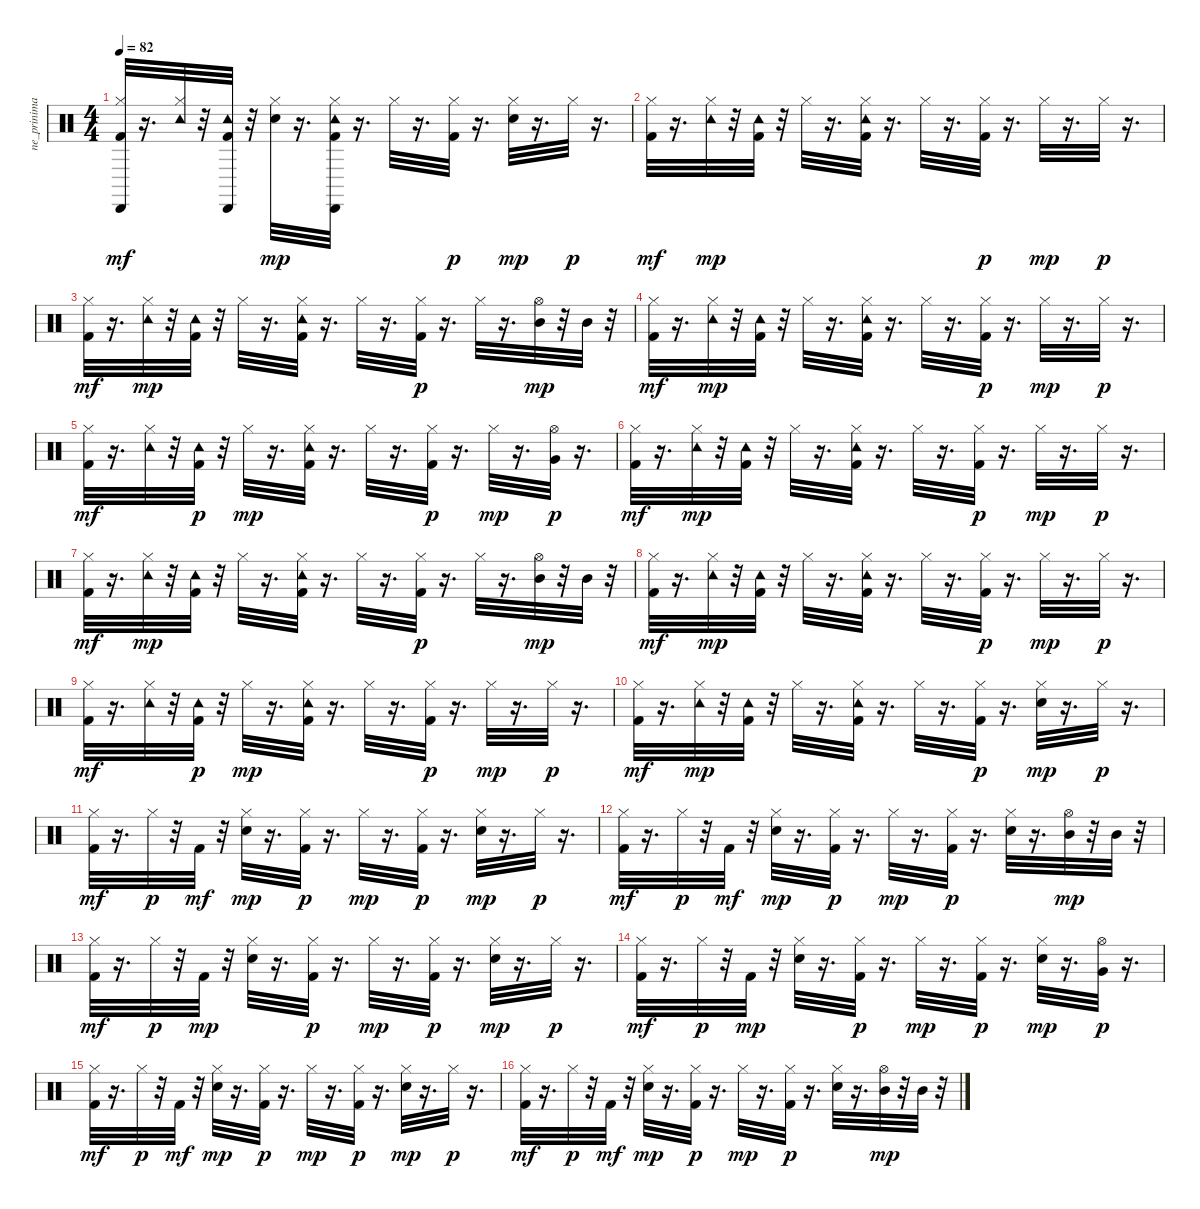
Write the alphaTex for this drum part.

\track ("ne_prinimai" "ne_prinima") {instrument percussion}
\staff {score}
\articulation defaults
\ts (4 4)
\tempo 82
\clef neutral
\ks c
("Kick (hit) 2" "Hi-Hat (closed)" "Cabasa (hit)").32{dy mf} r.16{d} ("Hi-Hat (closed)" "Tambourine (hit)").32 r.32 ("Kick (hit) 2" "Tambourine (hit)" "Cabasa (hit)").32 r.32 ("Electric Snare (hit)" "Hi-Hat (closed)").32{dy mp} r.16{d} ("Kick (hit) 2" "Hi-Hat (closed)" "Tambourine (hit)" "Cabasa (hit)").32 r.16{d} "Hi-Hat (closed)".32 r.16{d} ("Kick (hit) 2" "Hi-Hat (closed)").32{dy p} r.16{d} ("Snare (hit) 2" "Hi-Hat (closed)").32{dy mp} r.16{d} "Hi-Hat (closed)".32{dy p} r.16{d} |
("Kick (hit) 2" "Hi-Hat (closed)").32{dy mf} r.16{d} ("Hi-Hat (closed)" "Tambourine (hit)").32{dy mp} r.32 ("Kick (hit) 2" "Tambourine (hit)").32 r.32 "Hi-Hat (closed)".32 r.16{d} ("Kick (hit) 2" "Hi-Hat (closed)" "Tambourine (hit)").32 r.16{d} "Hi-Hat (closed)".32 r.16{d} ("Kick (hit) 2" "Hi-Hat (closed)").32{dy p} r.16{d} "Hi-Hat (closed)".32{dy mp} r.16{d} "Hi-Hat (closed)".32{dy p} r.16{d} |
("Kick (hit) 2" "Hi-Hat (closed)").32{dy mf} r.16{d} ("Hi-Hat (closed)" "Tambourine (hit)").32{dy mp} r.32 ("Kick (hit) 2" "Tambourine (hit)").32 r.32 "Hi-Hat (closed)".32 r.16{d} ("Kick (hit) 2" "Hi-Hat (closed)" "Tambourine (hit)").32 r.16{d} "Hi-Hat (closed)".32 r.16{d} ("Kick (hit) 2" "Hi-Hat (closed)").32{dy p} r.16{d} "Hi-Hat (closed)".32 r.16{d} ("Hi-Hat (open)" "Mid Tom (hit)").32{dy mp} r.32 "Mid Tom (hit)".32 r.32 |
("Kick (hit) 2" "Hi-Hat (closed)").32{dy mf} r.16{d} ("Hi-Hat (closed)" "Tambourine (hit)").32{dy mp} r.32 ("Kick (hit) 2" "Tambourine (hit)").32 r.32 "Hi-Hat (closed)".32 r.16{d} ("Kick (hit) 2" "Hi-Hat (closed)" "Tambourine (hit)").32 r.16{d} "Hi-Hat (closed)".32 r.16{d} ("Kick (hit) 2" "Hi-Hat (closed)").32{dy p} r.16{d} "Hi-Hat (closed)".32{dy mp} r.16{d} "Hi-Hat (closed)".32{dy p} r.16{d} |
("Kick (hit) 2" "Hi-Hat (closed)").32{dy mf} r.16{d} ("Hi-Hat (closed)" "Tambourine (hit)").32 r.32 ("Kick (hit) 2" "Tambourine (hit)").32{dy p} r.32 "Hi-Hat (closed)".32{dy mp} r.16{d} ("Kick (hit) 2" "Hi-Hat (closed)" "Tambourine (hit)").32 r.16{d} "Hi-Hat (closed)".32 r.16{d} ("Kick (hit) 2" "Hi-Hat (closed)").32{dy p} r.16{d} "Hi-Hat (closed)".32{dy mp} r.16{d} ("Very Low Tom (hit)" "Hi-Hat (open)").32{dy p} r.16{d} |
("Kick (hit) 2" "Hi-Hat (closed)").32{dy mf} r.16{d} ("Hi-Hat (closed)" "Tambourine (hit)").32{dy mp} r.32 ("Kick (hit) 2" "Tambourine (hit)").32 r.32 "Hi-Hat (closed)".32 r.16{d} ("Kick (hit) 2" "Hi-Hat (closed)" "Tambourine (hit)").32 r.16{d} "Hi-Hat (closed)".32 r.16{d} ("Kick (hit) 2" "Hi-Hat (closed)").32{dy p} r.16{d} "Hi-Hat (closed)".32{dy mp} r.16{d} "Hi-Hat (closed)".32{dy p} r.16{d} |
("Kick (hit) 2" "Hi-Hat (closed)").32{dy mf} r.16{d} ("Hi-Hat (closed)" "Tambourine (hit)").32{dy mp} r.32 ("Kick (hit) 2" "Tambourine (hit)").32 r.32 "Hi-Hat (closed)".32 r.16{d} ("Kick (hit) 2" "Hi-Hat (closed)" "Tambourine (hit)").32 r.16{d} "Hi-Hat (closed)".32 r.16{d} ("Kick (hit) 2" "Hi-Hat (closed)").32{dy p} r.16{d} "Hi-Hat (closed)".32 r.16{d} ("Hi-Hat (open)" "Mid Tom (hit)").32{dy mp} r.32 "Mid Tom (hit)".32 r.32 |
("Kick (hit) 2" "Hi-Hat (closed)").32{dy mf} r.16{d} ("Hi-Hat (closed)" "Tambourine (hit)").32{dy mp} r.32 ("Kick (hit) 2" "Tambourine (hit)").32 r.32 "Hi-Hat (closed)".32 r.16{d} ("Kick (hit) 2" "Hi-Hat (closed)" "Tambourine (hit)").32 r.16{d} "Hi-Hat (closed)".32 r.16{d} ("Kick (hit) 2" "Hi-Hat (closed)").32{dy p} r.16{d} "Hi-Hat (closed)".32{dy mp} r.16{d} "Hi-Hat (closed)".32{dy p} r.16{d} |
("Kick (hit) 2" "Hi-Hat (closed)").32{dy mf} r.16{d} ("Hi-Hat (closed)" "Tambourine (hit)").32 r.32 ("Kick (hit) 2" "Tambourine (hit)").32{dy p} r.32 "Hi-Hat (closed)".32{dy mp} r.16{d} ("Kick (hit) 2" "Hi-Hat (closed)" "Tambourine (hit)").32 r.16{d} "Hi-Hat (closed)".32 r.16{d} ("Kick (hit) 2" "Hi-Hat (closed)").32{dy p} r.16{d} "Hi-Hat (closed)".32{dy mp} r.16{d} "Hi-Hat (closed)".32{dy p} r.16{d} |
("Kick (hit) 2" "Hi-Hat (closed)").32{dy mf} r.16{d} ("Hi-Hat (closed)" "Tambourine (hit)").32{dy mp} r.32 ("Kick (hit) 2" "Tambourine (hit)").32 r.32 "Hi-Hat (closed)".32 r.16{d} ("Kick (hit) 2" "Hi-Hat (closed)" "Tambourine (hit)").32 r.16{d} "Hi-Hat (closed)".32 r.16{d} ("Kick (hit) 2" "Hi-Hat (closed)").32{dy p} r.16{d} ("Snare (hit) 2" "Hi-Hat (closed)").32{dy mp} r.16{d} "Hi-Hat (closed)".32{dy p} r.16{d} |
("Kick (hit) 2" "Hi-Hat (closed)").32{dy mf} r.16{d} "Hi-Hat (closed)".32{dy p} r.32 "Kick (hit) 2".32{dy mf} r.32 ("Snare (hit) 2" "Hi-Hat (closed)").32{dy mp} r.16{d} ("Kick (hit) 2" "Hi-Hat (closed)").32{dy p} r.16{d} "Hi-Hat (closed)".32{dy mp} r.16{d} ("Kick (hit) 2" "Hi-Hat (closed)").32{dy p} r.16{d} ("Snare (hit) 2" "Hi-Hat (closed)").32{dy mp} r.16{d} "Hi-Hat (closed)".32{dy p} r.16{d} |
("Kick (hit) 2" "Hi-Hat (closed)").32{dy mf} r.16{d} "Hi-Hat (closed)".32{dy p} r.32 "Kick (hit) 2".32{dy mf} r.32 ("Snare (hit) 2" "Hi-Hat (closed)").32{dy mp} r.16{d} ("Kick (hit) 2" "Hi-Hat (closed)").32{dy p} r.16{d} "Hi-Hat (closed)".32{dy mp} r.16{d} ("Kick (hit) 2" "Hi-Hat (closed)").32{dy p} r.16{d} ("Snare (hit) 2" "Hi-Hat (closed)").32 r.16{d} ("Hi-Hat (open)" "Mid Tom (hit)").32{dy mp} r.32 "Mid Tom (hit)".32 r.32 |
("Kick (hit) 2" "Hi-Hat (closed)").32{dy mf} r.16{d} "Hi-Hat (closed)".32{dy p} r.32 "Kick (hit) 2".32{dy mp} r.32 ("Snare (hit) 2" "Hi-Hat (closed)").32 r.16{d} ("Kick (hit) 2" "Hi-Hat (closed)").32{dy p} r.16{d} "Hi-Hat (closed)".32{dy mp} r.16{d} ("Kick (hit) 2" "Hi-Hat (closed)").32{dy p} r.16{d} ("Snare (hit) 2" "Hi-Hat (closed)").32{dy mp} r.16{d} "Hi-Hat (closed)".32{dy p} r.16{d} |
("Kick (hit) 2" "Hi-Hat (closed)").32{dy mf} r.16{d} "Hi-Hat (closed)".32{dy p} r.32 "Kick (hit) 2".32{dy mp} r.32 ("Snare (hit) 2" "Hi-Hat (closed)").32 r.16{d} ("Kick (hit) 2" "Hi-Hat (closed)").32{dy p} r.16{d} "Hi-Hat (closed)".32{dy mp} r.16{d} ("Kick (hit) 2" "Hi-Hat (closed)").32{dy p} r.16{d} ("Snare (hit) 2" "Hi-Hat (closed)").32{dy mp} r.16{d} ("Very Low Tom (hit)" "Hi-Hat (open)").32{dy p} r.16{d} |
("Kick (hit) 2" "Hi-Hat (closed)").32{dy mf} r.16{d} "Hi-Hat (closed)".32{dy p} r.32 "Kick (hit) 2".32{dy mf} r.32 ("Snare (hit) 2" "Hi-Hat (closed)").32{dy mp} r.16{d} ("Kick (hit) 2" "Hi-Hat (closed)").32{dy p} r.16{d} "Hi-Hat (closed)".32{dy mp} r.16{d} ("Kick (hit) 2" "Hi-Hat (closed)").32{dy p} r.16{d} ("Snare (hit) 2" "Hi-Hat (closed)").32{dy mp} r.16{d} "Hi-Hat (closed)".32{dy p} r.16{d} |
("Kick (hit) 2" "Hi-Hat (closed)").32{dy mf} r.16{d} "Hi-Hat (closed)".32{dy p} r.32 "Kick (hit) 2".32{dy mf} r.32 ("Snare (hit) 2" "Hi-Hat (closed)").32{dy mp} r.16{d} ("Kick (hit) 2" "Hi-Hat (closed)").32{dy p} r.16{d} "Hi-Hat (closed)".32{dy mp} r.16{d} ("Kick (hit) 2" "Hi-Hat (closed)").32{dy p} r.16{d} ("Snare (hit) 2" "Hi-Hat (closed)").32 r.16{d} ("Hi-Hat (open)" "Mid Tom (hit)").32{dy mp} r.32 "Mid Tom (hit)".32 r.32
